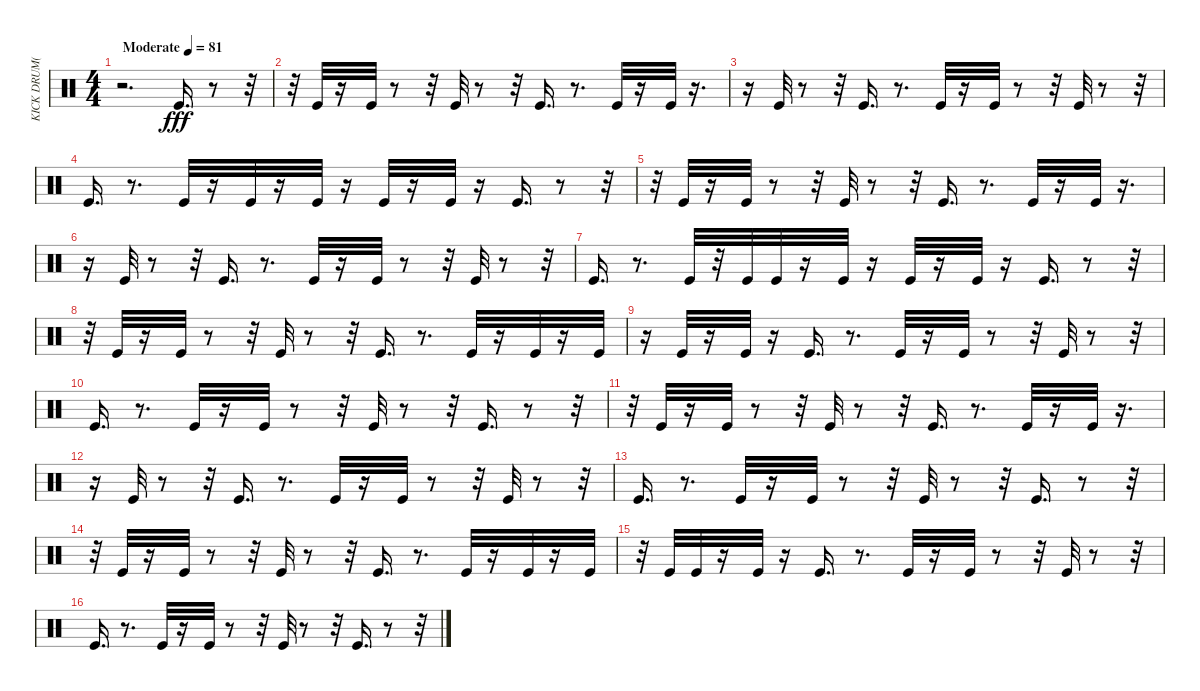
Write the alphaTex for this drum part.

\track ("KICK DRUM(ACOU)" "KICK DRUM(") {instrument percussion}
\staff {score}
\articulation defaults
\ts (4 4)
\tempo (81 "Moderate")
\clef neutral
\ks c
r.2{d dy fff} "Kick (hit)".16{d} r.8 r.32 |
r.32 "Kick (hit)".32 r.16 "Kick (hit)".32 r.8 r.32 "Kick (hit)".32 r.8 r.32 "Kick (hit)".16{d} r.8{d} "Kick (hit)".32 r.16 "Kick (hit)".32 r.16{d} |
r.16 "Kick (hit)".32 r.8 r.32 "Kick (hit)".16{d} r.8{d} "Kick (hit)".32 r.16 "Kick (hit)".32 r.8 r.32 "Kick (hit)".32 r.8 r.32 |
"Kick (hit)".16{d} r.8{d} "Kick (hit)".32 r.16 "Kick (hit)".32 r.16 "Kick (hit)".32 r.16 "Kick (hit)".32 r.16 "Kick (hit)".32 r.16 "Kick (hit)".16{d} r.8 r.32 |
r.32 "Kick (hit)".32 r.16 "Kick (hit)".32 r.8 r.32 "Kick (hit)".32 r.8 r.32 "Kick (hit)".16{d} r.8{d} "Kick (hit)".32 r.16 "Kick (hit)".32 r.16{d} |
r.16 "Kick (hit)".32 r.8 r.32 "Kick (hit)".16{d} r.8{d} "Kick (hit)".32 r.16 "Kick (hit)".32 r.8 r.32 "Kick (hit)".32 r.8 r.32 |
"Kick (hit)".16{d} r.8{d} "Kick (hit)".32 r.32 "Kick (hit)".32 "Kick (hit)".32 r.16 "Kick (hit)".32 r.16 "Kick (hit)".32 r.16 "Kick (hit)".32 r.16 "Kick (hit)".16{d} r.8 r.32 |
r.32 "Kick (hit)".32 r.16 "Kick (hit)".32 r.8 r.32 "Kick (hit)".32 r.8 r.32 "Kick (hit)".16{d} r.8{d} "Kick (hit)".32 r.16 "Kick (hit)".32 r.16 "Kick (hit)".32 |
r.16 "Kick (hit)".32 r.16 "Kick (hit)".32 r.16 "Kick (hit)".16{d} r.8{d} "Kick (hit)".32 r.16 "Kick (hit)".32 r.8 r.32 "Kick (hit)".32 r.8 r.32 |
"Kick (hit)".16{d} r.8{d} "Kick (hit)".32 r.16 "Kick (hit)".32 r.8 r.32 "Kick (hit)".32 r.8 r.32 "Kick (hit)".16{d} r.8 r.32 |
r.32 "Kick (hit)".32 r.16 "Kick (hit)".32 r.8 r.32 "Kick (hit)".32 r.8 r.32 "Kick (hit)".16{d} r.8{d} "Kick (hit)".32 r.16 "Kick (hit)".32 r.16{d} |
r.16 "Kick (hit)".32 r.8 r.32 "Kick (hit)".16{d} r.8{d} "Kick (hit)".32 r.16 "Kick (hit)".32 r.8 r.32 "Kick (hit)".32 r.8 r.32 |
"Kick (hit)".16{d} r.8{d} "Kick (hit)".32 r.16 "Kick (hit)".32 r.8 r.32 "Kick (hit)".32 r.8 r.32 "Kick (hit)".16{d} r.8 r.32 |
r.32 "Kick (hit)".32 r.16 "Kick (hit)".32 r.8 r.32 "Kick (hit)".32 r.8 r.32 "Kick (hit)".16{d} r.8{d} "Kick (hit)".32 r.16 "Kick (hit)".32 r.16 "Kick (hit)".32 |
r.32 "Kick (hit)".32 "Kick (hit)".32 r.16 "Kick (hit)".32 r.16 "Kick (hit)".16{d} r.8{d} "Kick (hit)".32 r.16 "Kick (hit)".32 r.8 r.32 "Kick (hit)".32 r.8 r.32 |
"Kick (hit)".16{d} r.8{d} "Kick (hit)".32 r.16 "Kick (hit)".32 r.8 r.32 "Kick (hit)".32 r.8 r.32 "Kick (hit)".16{d} r.8 r.32
